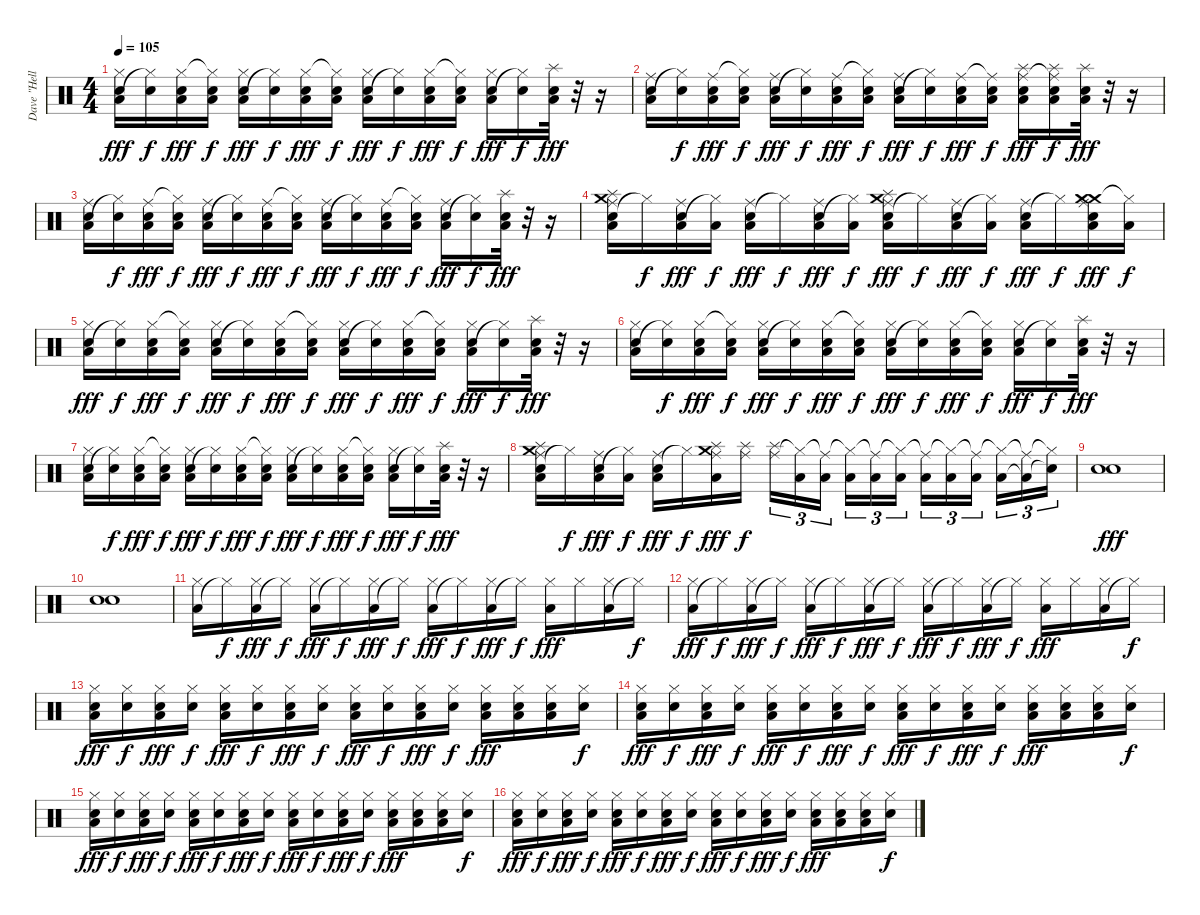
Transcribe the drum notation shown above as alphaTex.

\track ("Dave \"Hellstorm\" Chiarella" "Dave \"Hell") {solo instrument percussion}
\staff {score}
\articulation defaults
\ts (4 4)
\tempo 105
\clef neutral
\ks c
("Electric Snare (hit)" "Low Floor Tom (hit)" "Hi-Hat (closed)").16{dy fff} ("Electric Snare (hit)" "Hi-Hat (closed)"{t}).16{dy f} ("Electric Snare (hit)" "Low Floor Tom (hit)" "Hi-Hat (closed)").16{dy fff} ("Electric Snare (hit)" "Low Floor Tom (hit)" "Hi-Hat (closed)"{t}).16{dy f} ("Electric Snare (hit)" "Low Floor Tom (hit)" "Hi-Hat (closed)").16{dy fff} ("Electric Snare (hit)" "Hi-Hat (closed)"{t}).16{dy f} ("Electric Snare (hit)" "Low Floor Tom (hit)" "Hi-Hat (closed)").16{dy fff} ("Electric Snare (hit)" "Low Floor Tom (hit)" "Hi-Hat (closed)"{t}).16{dy f} ("Electric Snare (hit)" "Low Floor Tom (hit)" "Hi-Hat (closed)").16{dy fff} ("Electric Snare (hit)" "Hi-Hat (closed)"{t}).16{dy f} ("Electric Snare (hit)" "Low Floor Tom (hit)" "Hi-Hat (closed)").16{dy fff} ("Electric Snare (hit)" "Low Floor Tom (hit)" "Hi-Hat (closed)"{t}).16{dy f} ("Electric Snare (hit)" "Low Floor Tom (hit)" "Hi-Hat (closed)").16{dy fff} ("Electric Snare (hit)" "Hi-Hat (closed)"{t}).16{dy f} ("Electric Snare (hit)" "Splash (hit)" "Low Floor Tom (hit)").32{dy fff} r.32 r.16 |
("Electric Snare (hit)" "Low Floor Tom (hit)" "Ride (middle)").16 ("Electric Snare (hit)" "Hi-Hat (closed)"{t}).16{dy f} ("Electric Snare (hit)" "Low Floor Tom (hit)" "Ride (middle)").16{dy fff} ("Electric Snare (hit)" "Low Floor Tom (hit)" "Hi-Hat (closed)"{t}).16{dy f} ("Electric Snare (hit)" "Low Floor Tom (hit)" "Ride (middle)").16{dy fff} ("Electric Snare (hit)" "Hi-Hat (closed)"{t}).16{dy f} ("Electric Snare (hit)" "Low Floor Tom (hit)" "Ride (middle)").16{dy fff} ("Electric Snare (hit)" "Low Floor Tom (hit)" "Hi-Hat (closed)"{t}).16{dy f} ("Electric Snare (hit)" "Low Floor Tom (hit)" "Ride (middle)").16{dy fff} ("Electric Snare (hit)" "Hi-Hat (closed)"{t}).16{dy f} ("Electric Snare (hit)" "Low Floor Tom (hit)" "Ride (middle)").16{dy fff} ("Electric Snare (hit)" "Low Floor Tom (hit)" "Ride (middle)"{t}).16{dy f} ("Electric Snare (hit)" "Splash (hit)" "Low Floor Tom (hit)" "Ride (middle)").16{dy fff} ("Electric Snare (hit)" "Splash (hit)" "Low Floor Tom (hit)" "Ride (middle)"{t}).16{dy f} ("Electric Snare (hit)" "Splash (hit)" "Low Floor Tom (hit)").32{dy fff} r.32 r.16 |
("Electric Snare (hit)" "Low Floor Tom (hit)" "Ride (middle)").16 ("Electric Snare (hit)" "Hi-Hat (closed)"{t}).16{dy f} ("Electric Snare (hit)" "Low Floor Tom (hit)" "Ride (middle)").16{dy fff} ("Electric Snare (hit)" "Low Floor Tom (hit)" "Hi-Hat (closed)"{t}).16{dy f} ("Electric Snare (hit)" "Low Floor Tom (hit)" "Ride (middle)").16{dy fff} ("Electric Snare (hit)" "Hi-Hat (closed)"{t}).16{dy f} ("Electric Snare (hit)" "Low Floor Tom (hit)" "Ride (middle)").16{dy fff} ("Electric Snare (hit)" "Low Floor Tom (hit)" "Hi-Hat (closed)"{t}).16{dy f} ("Electric Snare (hit)" "Low Floor Tom (hit)" "Ride (middle)").16{dy fff} ("Electric Snare (hit)" "Hi-Hat (closed)"{t}).16{dy f} ("Electric Snare (hit)" "Low Floor Tom (hit)" "Ride (middle)").16{dy fff} ("Electric Snare (hit)" "Low Floor Tom (hit)" "Hi-Hat (closed)"{t}).16{dy f} ("Electric Snare (hit)" "Low Floor Tom (hit)" "Ride (middle)").16{dy fff} ("Electric Snare (hit)" "Hi-Hat (closed)"{t}).16{dy f} ("Electric Snare (hit)" "Splash (hit)" "Low Floor Tom (hit)").32{dy fff} r.32 r.16 |
("Electric Snare (hit)" "Crash medium (hit)" "Splash (hit)" "Low Floor Tom (hit)" "Ride (middle)").16 "Hi-Hat (closed)"{t}.16{dy f} ("Electric Snare (hit)" "Low Floor Tom (hit)" "Ride (middle)").16{dy fff} ("Low Floor Tom (hit)" "Hi-Hat (closed)"{t}).16{dy f} ("Electric Snare (hit)" "Low Floor Tom (hit)" "Ride (middle)").16{dy fff} "Hi-Hat (closed)"{t}.16{dy f} ("Electric Snare (hit)" "Low Floor Tom (hit)" "Ride (middle)").16{dy fff} ("Low Floor Tom (hit)" "Hi-Hat (closed)"{t}).16{dy f} ("Electric Snare (hit)" "Crash medium (hit)" "Splash (hit)" "Low Floor Tom (hit)" "Ride (middle)").16{dy fff} "Hi-Hat (closed)"{t}.16{dy f} ("Electric Snare (hit)" "Low Floor Tom (hit)" "Ride (middle)").16{dy fff} ("Low Floor Tom (hit)" "Hi-Hat (closed)"{t}).16{dy f} ("Electric Snare (hit)" "Low Floor Tom (hit)" "Ride (middle)").16{dy fff} "Hi-Hat (closed)"{t}.16{dy f} ("Electric Snare (hit)" "Crash medium (hit)" "Crash medium (hit)" "Low Floor Tom (hit)" "Ride (middle)").16{dy fff} ("Low Floor Tom (hit)" "Hi-Hat (closed)"{t}).16{dy f} |
("Electric Snare (hit)" "Low Floor Tom (hit)" "Hi-Hat (closed)").16{dy fff} ("Electric Snare (hit)" "Hi-Hat (closed)"{t}).16{dy f} ("Electric Snare (hit)" "Low Floor Tom (hit)" "Hi-Hat (closed)").16{dy fff} ("Electric Snare (hit)" "Low Floor Tom (hit)" "Hi-Hat (closed)"{t}).16{dy f} ("Electric Snare (hit)" "Low Floor Tom (hit)" "Hi-Hat (closed)").16{dy fff} ("Electric Snare (hit)" "Hi-Hat (closed)"{t}).16{dy f} ("Electric Snare (hit)" "Low Floor Tom (hit)" "Hi-Hat (closed)").16{dy fff} ("Electric Snare (hit)" "Low Floor Tom (hit)" "Hi-Hat (closed)"{t}).16{dy f} ("Electric Snare (hit)" "Low Floor Tom (hit)" "Hi-Hat (closed)").16{dy fff} ("Electric Snare (hit)" "Hi-Hat (closed)"{t}).16{dy f} ("Electric Snare (hit)" "Low Floor Tom (hit)" "Hi-Hat (closed)").16{dy fff} ("Electric Snare (hit)" "Low Floor Tom (hit)" "Hi-Hat (closed)"{t}).16{dy f} ("Electric Snare (hit)" "Low Floor Tom (hit)" "Hi-Hat (closed)").16{dy fff} ("Electric Snare (hit)" "Hi-Hat (closed)"{t}).16{dy f} ("Electric Snare (hit)" "Splash (hit)" "Low Floor Tom (hit)").32{dy fff} r.32 r.16 |
("Electric Snare (hit)" "Low Floor Tom (hit)" "Hi-Hat (closed)").16 ("Electric Snare (hit)" "Hi-Hat (closed)"{t}).16{dy f} ("Electric Snare (hit)" "Low Floor Tom (hit)" "Hi-Hat (closed)").16{dy fff} ("Electric Snare (hit)" "Low Floor Tom (hit)" "Hi-Hat (closed)"{t}).16{dy f} ("Electric Snare (hit)" "Low Floor Tom (hit)" "Hi-Hat (closed)").16{dy fff} ("Electric Snare (hit)" "Hi-Hat (closed)"{t}).16{dy f} ("Electric Snare (hit)" "Low Floor Tom (hit)" "Hi-Hat (closed)").16{dy fff} ("Electric Snare (hit)" "Low Floor Tom (hit)" "Hi-Hat (closed)"{t}).16{dy f} ("Electric Snare (hit)" "Low Floor Tom (hit)" "Hi-Hat (closed)").16{dy fff} ("Electric Snare (hit)" "Hi-Hat (closed)"{t}).16{dy f} ("Electric Snare (hit)" "Low Floor Tom (hit)" "Hi-Hat (closed)").16{dy fff} ("Electric Snare (hit)" "Low Floor Tom (hit)" "Hi-Hat (closed)"{t}).16{dy f} ("Electric Snare (hit)" "Low Floor Tom (hit)" "Hi-Hat (closed)").16{dy fff} ("Electric Snare (hit)" "Hi-Hat (closed)"{t}).16{dy f} ("Electric Snare (hit)" "Splash (hit)" "Low Floor Tom (hit)").32{dy fff} r.32 r.16 |
("Electric Snare (hit)" "Low Floor Tom (hit)" "Hi-Hat (closed)").16 ("Electric Snare (hit)" "Hi-Hat (closed)"{t}).16{dy f} ("Electric Snare (hit)" "Low Floor Tom (hit)" "Hi-Hat (closed)").16{dy fff} ("Electric Snare (hit)" "Low Floor Tom (hit)" "Hi-Hat (closed)"{t}).16{dy f} ("Electric Snare (hit)" "Low Floor Tom (hit)" "Hi-Hat (closed)").16{dy fff} ("Electric Snare (hit)" "Hi-Hat (closed)"{t}).16{dy f} ("Electric Snare (hit)" "Low Floor Tom (hit)" "Hi-Hat (closed)").16{dy fff} ("Electric Snare (hit)" "Low Floor Tom (hit)" "Hi-Hat (closed)"{t}).16{dy f} ("Electric Snare (hit)" "Low Floor Tom (hit)" "Hi-Hat (closed)").16{dy fff} ("Electric Snare (hit)" "Hi-Hat (closed)"{t}).16{dy f} ("Electric Snare (hit)" "Low Floor Tom (hit)" "Hi-Hat (closed)").16{dy fff} ("Electric Snare (hit)" "Low Floor Tom (hit)" "Hi-Hat (closed)"{t}).16{dy f} ("Electric Snare (hit)" "Low Floor Tom (hit)" "Hi-Hat (closed)").16{dy fff} ("Electric Snare (hit)" "Hi-Hat (closed)"{t}).16{dy f} ("Electric Snare (hit)" "Splash (hit)" "Low Floor Tom (hit)").32{dy fff} r.32 r.16 |
("Electric Snare (hit)" "Crash medium (hit)" "Splash (hit)" "Low Floor Tom (hit)" "Ride (middle)").16 "Hi-Hat (closed)"{t}.16{dy f} ("Electric Snare (hit)" "Low Floor Tom (hit)" "Ride (middle)").16{dy fff} ("Low Floor Tom (hit)" "Hi-Hat (closed)"{t}).16{dy f} ("Electric Snare (hit)" "Low Floor Tom (hit)" "Ride (middle)").16{dy fff} "Hi-Hat (closed)"{t}.16{dy f} ("Splash (hit)" "Crash medium (hit)" "Low Floor Tom (hit)" "Ride (middle)").16{dy fff} ("Splash (hit)" "Ride (middle)").16{dy f} ("Splash (hit)" "Ride (middle)").16{tu (3 2)} ("Low Tom (hit)" "Hi-Hat (closed)"{t}).16{tu (3 2)} ("Low Tom (hit)" "Ride (middle)"{t}).16{tu (3 2) beam splitsecondary} ("Low Tom (hit)" "Hi-Hat (closed)"{t}).16{tu (3 2)} ("Low Tom (hit)" "Ride (middle)"{t}).16{tu (3 2)} ("Low Tom (hit)" "Hi-Hat (closed)"{t}).16{tu (3 2)} ("Low Tom (hit)" "Ride (middle)"{t}).16{tu (3 2)} ("Low Tom (hit)" "Hi-Hat (closed)"{t}).16{tu (3 2)} ("Low Tom (hit)" "Ride (middle)"{t}).16{tu (3 2) beam splitsecondary} ("Low Tom (hit)" "Hi-Hat (closed)"{t}).16{tu (3 2)} ("Low Tom (hit)"{t} "Ride (middle)"{t}).16{tu (3 2)} ("Electric Snare (hit)"{t} "Hi-Hat (closed)"{t}).16{tu (3 2)} |
("Electric Snare (hit)" "Electric Snare (hit)").1{dy fff} |
("Electric Snare (hit)" "Electric Snare (hit)").1 |
("Low Floor Tom (hit)" "Hi-Hat (closed)").16 "Hi-Hat (closed)"{t}.16{dy f} ("Low Floor Tom (hit)" "Hi-Hat (closed)").16{dy fff} "Hi-Hat (closed)"{t}.16{dy f} ("Low Floor Tom (hit)" "Hi-Hat (closed)").16{dy fff} "Hi-Hat (closed)"{t}.16{dy f} ("Low Floor Tom (hit)" "Hi-Hat (closed)").16{dy fff} "Hi-Hat (closed)"{t}.16{dy f} ("Low Floor Tom (hit)" "Hi-Hat (closed)").16{dy fff} "Hi-Hat (closed)"{t}.16{dy f} ("Low Floor Tom (hit)" "Hi-Hat (closed)").16{dy fff} "Hi-Hat (closed)"{t}.16{dy f} ("Low Floor Tom (hit)" "Hi-Hat (closed)").16{dy fff} "Hi-Hat (closed)".16 ("Low Floor Tom (hit)" "Hi-Hat (closed)").16 "Hi-Hat (closed)"{t}.16{dy f} |
("Low Floor Tom (hit)" "Hi-Hat (closed)").16{dy fff} "Hi-Hat (closed)"{t}.16{dy f} ("Low Floor Tom (hit)" "Hi-Hat (closed)").16{dy fff} "Hi-Hat (closed)"{t}.16{dy f} ("Low Floor Tom (hit)" "Hi-Hat (closed)").16{dy fff} "Hi-Hat (closed)"{t}.16{dy f} ("Low Floor Tom (hit)" "Hi-Hat (closed)").16{dy fff} "Hi-Hat (closed)"{t}.16{dy f} ("Low Floor Tom (hit)" "Hi-Hat (closed)").16{dy fff} "Hi-Hat (closed)"{t}.16{dy f} ("Low Floor Tom (hit)" "Hi-Hat (closed)").16{dy fff} "Hi-Hat (closed)"{t}.16{dy f} ("Low Floor Tom (hit)" "Hi-Hat (closed)").16{dy fff} "Hi-Hat (closed)".16 ("Low Floor Tom (hit)" "Hi-Hat (closed)").16 "Hi-Hat (closed)"{t}.16{dy f} |
("Electric Snare (hit)" "Low Floor Tom (hit)" "Hi-Hat (closed)").16{dy fff} ("Electric Snare (hit)" "Hi-Hat (closed)").16{dy f} ("Electric Snare (hit)" "Low Floor Tom (hit)" "Hi-Hat (closed)").16{dy fff} ("Electric Snare (hit)" "Hi-Hat (closed)").16{dy f} ("Electric Snare (hit)" "Low Floor Tom (hit)" "Hi-Hat (closed)").16{dy fff} ("Electric Snare (hit)" "Hi-Hat (closed)").16{dy f} ("Electric Snare (hit)" "Low Floor Tom (hit)" "Hi-Hat (closed)").16{dy fff} ("Electric Snare (hit)" "Hi-Hat (closed)").16{dy f} ("Electric Snare (hit)" "Low Floor Tom (hit)" "Hi-Hat (closed)").16{dy fff} ("Electric Snare (hit)" "Hi-Hat (closed)").16{dy f} ("Electric Snare (hit)" "Low Floor Tom (hit)" "Hi-Hat (closed)").16{dy fff} ("Electric Snare (hit)" "Hi-Hat (closed)").16{dy f} ("Electric Snare (hit)" "Low Floor Tom (hit)" "Hi-Hat (closed)").16{dy fff} ("Electric Snare (hit)" "Low Floor Tom (hit)" "Hi-Hat (closed)").16 ("Electric Snare (hit)" "Low Floor Tom (hit)" "Hi-Hat (closed)").16 ("Electric Snare (hit)" "Hi-Hat (closed)").16{dy f} |
("Electric Snare (hit)" "Low Floor Tom (hit)" "Hi-Hat (closed)").16{dy fff} ("Electric Snare (hit)" "Hi-Hat (closed)").16{dy f} ("Electric Snare (hit)" "Low Floor Tom (hit)" "Hi-Hat (closed)").16{dy fff} ("Electric Snare (hit)" "Hi-Hat (closed)").16{dy f} ("Electric Snare (hit)" "Low Floor Tom (hit)" "Hi-Hat (closed)").16{dy fff} ("Electric Snare (hit)" "Hi-Hat (closed)").16{dy f} ("Electric Snare (hit)" "Low Floor Tom (hit)" "Hi-Hat (closed)").16{dy fff} ("Electric Snare (hit)" "Hi-Hat (closed)").16{dy f} ("Electric Snare (hit)" "Low Floor Tom (hit)" "Hi-Hat (closed)").16{dy fff} ("Electric Snare (hit)" "Hi-Hat (closed)").16{dy f} ("Electric Snare (hit)" "Low Floor Tom (hit)" "Hi-Hat (closed)").16{dy fff} ("Electric Snare (hit)" "Hi-Hat (closed)").16{dy f} ("Electric Snare (hit)" "Low Floor Tom (hit)" "Hi-Hat (closed)").16{dy fff} ("Electric Snare (hit)" "Low Floor Tom (hit)" "Hi-Hat (closed)").16 ("Electric Snare (hit)" "Low Floor Tom (hit)" "Hi-Hat (closed)").16 ("Electric Snare (hit)" "Hi-Hat (closed)").16{dy f} |
("Electric Snare (hit)" "Low Floor Tom (hit)" "Hi-Hat (closed)").16{dy fff} ("Electric Snare (hit)" "Hi-Hat (closed)").16{dy f} ("Electric Snare (hit)" "Low Floor Tom (hit)" "Hi-Hat (closed)").16{dy fff} ("Electric Snare (hit)" "Hi-Hat (closed)").16{dy f} ("Electric Snare (hit)" "Low Floor Tom (hit)" "Hi-Hat (closed)").16{dy fff} ("Electric Snare (hit)" "Hi-Hat (closed)").16{dy f} ("Electric Snare (hit)" "Low Floor Tom (hit)" "Hi-Hat (closed)").16{dy fff} ("Electric Snare (hit)" "Hi-Hat (closed)").16{dy f} ("Electric Snare (hit)" "Low Floor Tom (hit)" "Hi-Hat (closed)").16{dy fff} ("Electric Snare (hit)" "Hi-Hat (closed)").16{dy f} ("Electric Snare (hit)" "Low Floor Tom (hit)" "Hi-Hat (closed)").16{dy fff} ("Electric Snare (hit)" "Hi-Hat (closed)").16{dy f} ("Electric Snare (hit)" "Low Floor Tom (hit)" "Hi-Hat (closed)").16{dy fff} ("Electric Snare (hit)" "Low Floor Tom (hit)" "Hi-Hat (closed)").16 ("Electric Snare (hit)" "Low Floor Tom (hit)" "Hi-Hat (closed)").16 ("Electric Snare (hit)" "Hi-Hat (closed)").16{dy f} |
("Electric Snare (hit)" "Low Floor Tom (hit)" "Hi-Hat (closed)").16{dy fff} ("Electric Snare (hit)" "Hi-Hat (closed)").16{dy f} ("Electric Snare (hit)" "Low Floor Tom (hit)" "Hi-Hat (closed)").16{dy fff} ("Electric Snare (hit)" "Hi-Hat (closed)").16{dy f} ("Electric Snare (hit)" "Low Floor Tom (hit)" "Hi-Hat (closed)").16{dy fff} ("Electric Snare (hit)" "Hi-Hat (closed)").16{dy f} ("Electric Snare (hit)" "Low Floor Tom (hit)" "Hi-Hat (closed)").16{dy fff} ("Electric Snare (hit)" "Hi-Hat (closed)").16{dy f} ("Electric Snare (hit)" "Low Floor Tom (hit)" "Hi-Hat (closed)").16{dy fff} ("Electric Snare (hit)" "Hi-Hat (closed)").16{dy f} ("Electric Snare (hit)" "Low Floor Tom (hit)" "Hi-Hat (closed)").16{dy fff} ("Electric Snare (hit)" "Hi-Hat (closed)").16{dy f} ("Electric Snare (hit)" "Low Floor Tom (hit)" "Hi-Hat (closed)").16{dy fff} ("Electric Snare (hit)" "Low Floor Tom (hit)" "Hi-Hat (closed)").16 ("Electric Snare (hit)" "Low Floor Tom (hit)" "Hi-Hat (closed)").16 ("Electric Snare (hit)" "Hi-Hat (closed)").16{dy f}
